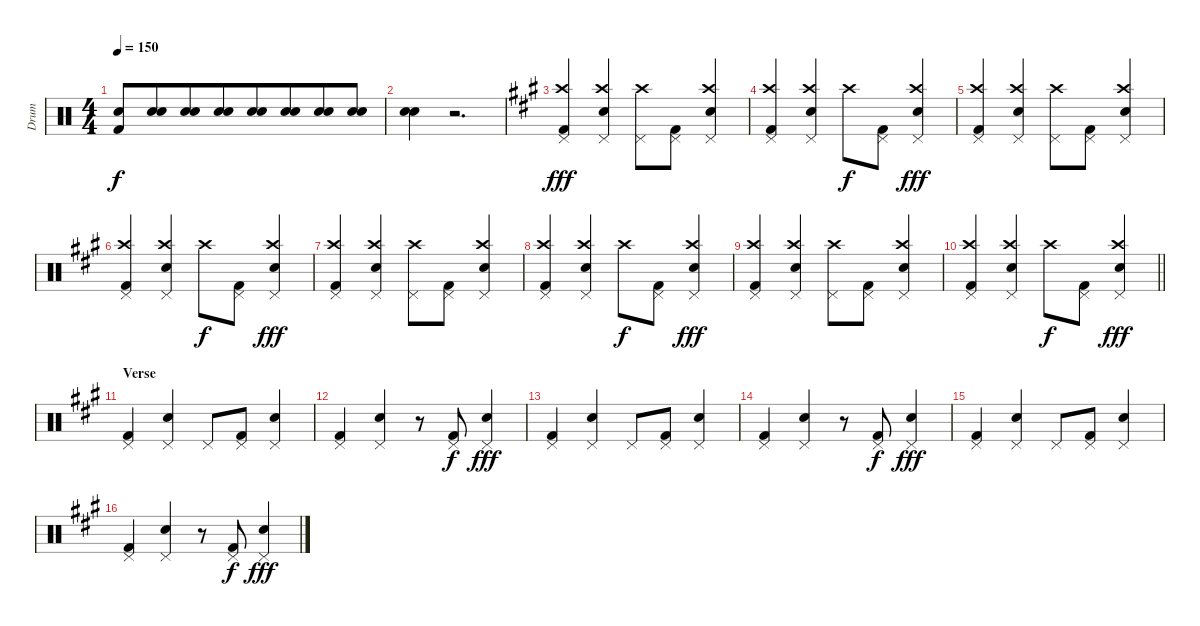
\track ("Drum" "Drum") {instrument percussion}
\staff {score}
\articulation defaults
\ts (4 4)
\tempo 150
\clef neutral
\ks c
("Kick (hit) 2" "Snare (hit) 2").8{dy f} ("Snare (hit) 2" "Snare (hit) 2").8{beam merge} ("Snare (hit) 2" "Snare (hit) 2").8 ("Snare (hit) 2" "Snare (hit) 2").8{beam merge} ("Snare (hit) 2" "Snare (hit) 2").8 ("Snare (hit) 2" "Snare (hit) 2").8{beam merge} ("Snare (hit) 2" "Snare (hit) 2").8 ("Snare (hit) 2" "Snare (hit) 2").8 |
("Snare (hit) 2" "Snare (hit) 2").4 r.2{d} |
\ks a
("Crash high (hit)" "Pedal Hi-Hat (hit)" "Kick (hit) 2").4{dy fff} ("Crash high (hit)" "Pedal Hi-Hat (hit)" "Snare (hit) 2").4 ("Crash high (hit)" "Pedal Hi-Hat (hit)").8 ("Pedal Hi-Hat (hit)" "Kick (hit) 2").8 ("Crash high (hit)" "Pedal Hi-Hat (hit)" "Snare (hit) 2").4 |
("Crash high (hit)" "Pedal Hi-Hat (hit)" "Kick (hit) 2").4 ("Crash high (hit)" "Pedal Hi-Hat (hit)" "Snare (hit) 2").4 "Crash high (hit)".8{dy f} ("Pedal Hi-Hat (hit)" "Kick (hit) 2").8 ("Crash high (hit)" "Pedal Hi-Hat (hit)" "Snare (hit) 2").4{dy fff} |
("Crash high (hit)" "Pedal Hi-Hat (hit)" "Kick (hit) 2").4 ("Crash high (hit)" "Pedal Hi-Hat (hit)" "Snare (hit) 2").4 ("Crash high (hit)" "Pedal Hi-Hat (hit)").8 ("Pedal Hi-Hat (hit)" "Kick (hit) 2").8 ("Crash high (hit)" "Pedal Hi-Hat (hit)" "Snare (hit) 2").4 |
("Crash high (hit)" "Pedal Hi-Hat (hit)" "Kick (hit) 2").4 ("Crash high (hit)" "Pedal Hi-Hat (hit)" "Snare (hit) 2").4 "Crash high (hit)".8{dy f} ("Pedal Hi-Hat (hit)" "Kick (hit) 2").8 ("Crash high (hit)" "Pedal Hi-Hat (hit)" "Snare (hit) 2").4{dy fff} |
("Crash high (hit)" "Pedal Hi-Hat (hit)" "Kick (hit) 2").4 ("Crash high (hit)" "Pedal Hi-Hat (hit)" "Snare (hit) 2").4 ("Crash high (hit)" "Pedal Hi-Hat (hit)").8 ("Pedal Hi-Hat (hit)" "Kick (hit) 2").8 ("Crash high (hit)" "Pedal Hi-Hat (hit)" "Snare (hit) 2").4 |
("Crash high (hit)" "Pedal Hi-Hat (hit)" "Kick (hit) 2").4 ("Crash high (hit)" "Pedal Hi-Hat (hit)" "Snare (hit) 2").4 "Crash high (hit)".8{dy f} ("Pedal Hi-Hat (hit)" "Kick (hit) 2").8 ("Crash high (hit)" "Pedal Hi-Hat (hit)" "Snare (hit) 2").4{dy fff} |
("Crash high (hit)" "Pedal Hi-Hat (hit)" "Kick (hit) 2").4 ("Crash high (hit)" "Pedal Hi-Hat (hit)" "Snare (hit) 2").4 ("Crash high (hit)" "Pedal Hi-Hat (hit)").8 ("Pedal Hi-Hat (hit)" "Kick (hit) 2").8 ("Crash high (hit)" "Pedal Hi-Hat (hit)" "Snare (hit) 2").4 |
\barLineRight lightlight
("Crash high (hit)" "Pedal Hi-Hat (hit)" "Kick (hit) 2").4 ("Crash high (hit)" "Pedal Hi-Hat (hit)" "Snare (hit) 2").4 "Crash high (hit)".8{dy f} ("Pedal Hi-Hat (hit)" "Kick (hit) 2").8 ("Crash high (hit)" "Pedal Hi-Hat (hit)" "Snare (hit) 2").4{dy fff} |
\section ("" "Verse")
("Pedal Hi-Hat (hit)" "Kick (hit) 2").4 ("Pedal Hi-Hat (hit)" "Snare (hit) 2").4 "Pedal Hi-Hat (hit)".8 ("Pedal Hi-Hat (hit)" "Kick (hit) 2").8 ("Pedal Hi-Hat (hit)" "Snare (hit) 2").4 |
("Pedal Hi-Hat (hit)" "Kick (hit) 2").4 ("Pedal Hi-Hat (hit)" "Snare (hit) 2").4 r.8 ("Pedal Hi-Hat (hit)" "Kick (hit) 2").8{dy f} ("Pedal Hi-Hat (hit)" "Snare (hit) 2").4{dy fff} |
("Pedal Hi-Hat (hit)" "Kick (hit) 2").4 ("Pedal Hi-Hat (hit)" "Snare (hit) 2").4 "Pedal Hi-Hat (hit)".8 ("Pedal Hi-Hat (hit)" "Kick (hit) 2").8 ("Pedal Hi-Hat (hit)" "Snare (hit) 2").4 |
("Pedal Hi-Hat (hit)" "Kick (hit) 2").4 ("Pedal Hi-Hat (hit)" "Snare (hit) 2").4 r.8 ("Pedal Hi-Hat (hit)" "Kick (hit) 2").8{dy f} ("Pedal Hi-Hat (hit)" "Snare (hit) 2").4{dy fff} |
("Pedal Hi-Hat (hit)" "Kick (hit) 2").4 ("Pedal Hi-Hat (hit)" "Snare (hit) 2").4 "Pedal Hi-Hat (hit)".8 ("Pedal Hi-Hat (hit)" "Kick (hit) 2").8 ("Pedal Hi-Hat (hit)" "Snare (hit) 2").4 |
("Pedal Hi-Hat (hit)" "Kick (hit) 2").4 ("Pedal Hi-Hat (hit)" "Snare (hit) 2").4 r.8 ("Pedal Hi-Hat (hit)" "Kick (hit) 2").8{dy f} ("Pedal Hi-Hat (hit)" "Snare (hit) 2").4{dy fff}
